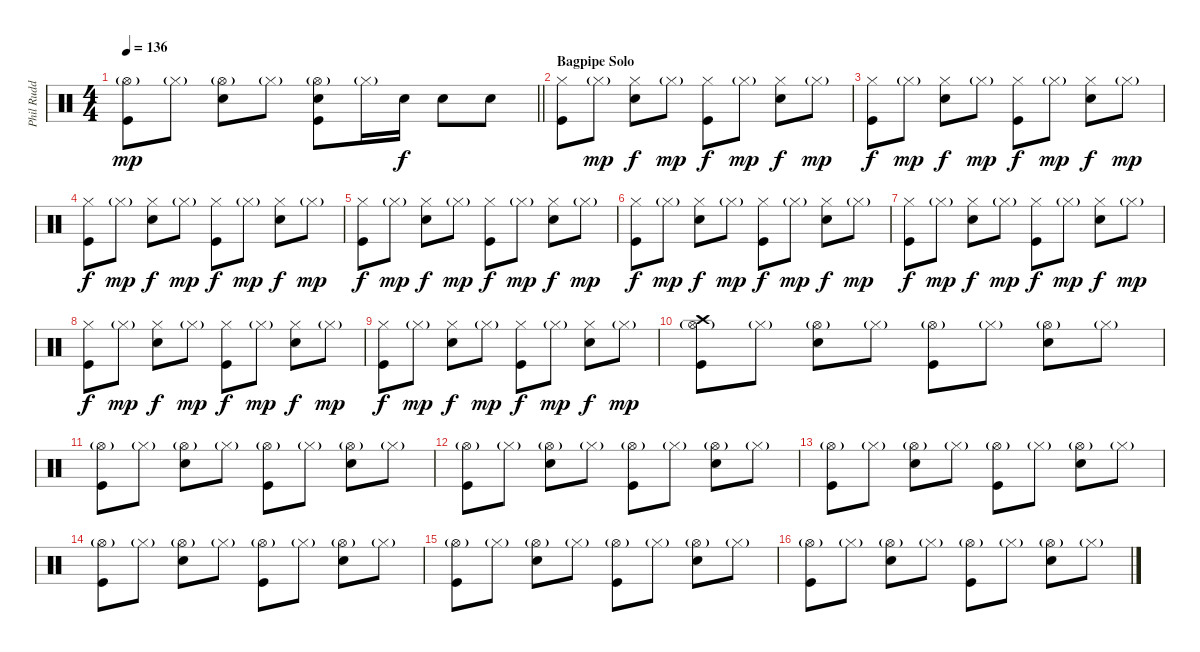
\track ("Phil Rudd" "Phil Rudd") {instrument percussion}
\staff {score}
\articulation defaults
\ts (4 4)
\tempo 136
\clef neutral
\barLineRight lightlight
\ks c
("Hi-Hat (open)"{g} "Kick (hit)").8{dy mp} "Hi-Hat (closed)"{g}.8 ("Hi-Hat (open)"{g} "Electric Snare (hit)").8 "Hi-Hat (closed)"{g}.8 ("Hi-Hat (open)"{g} "Electric Snare (hit)" "Kick (hit)").8 "Hi-Hat (closed)"{g}.16 "Electric Snare (hit)".16{dy f} "Electric Snare (hit)".8 "Electric Snare (hit)".8 |
\section ("" "Bagpipe Solo")
("Hi-Hat (closed)" "Kick (hit)").8 "Hi-Hat (closed)"{g}.8{dy mp} ("Hi-Hat (closed)" "Electric Snare (hit)").8{dy f} "Hi-Hat (closed)"{g}.8{dy mp} ("Hi-Hat (closed)" "Kick (hit)").8{dy f} "Hi-Hat (closed)"{g}.8{dy mp} ("Hi-Hat (closed)" "Electric Snare (hit)").8{dy f} "Hi-Hat (closed)"{g}.8{dy mp} |
("Hi-Hat (closed)" "Kick (hit)").8{dy f} "Hi-Hat (closed)"{g}.8{dy mp} ("Hi-Hat (closed)" "Electric Snare (hit)").8{dy f} "Hi-Hat (closed)"{g}.8{dy mp} ("Hi-Hat (closed)" "Kick (hit)").8{dy f} "Hi-Hat (closed)"{g}.8{dy mp} ("Hi-Hat (closed)" "Electric Snare (hit)").8{dy f} "Hi-Hat (closed)"{g}.8{dy mp} |
("Hi-Hat (closed)" "Kick (hit)").8{dy f} "Hi-Hat (closed)"{g}.8{dy mp} ("Hi-Hat (closed)" "Electric Snare (hit)").8{dy f} "Hi-Hat (closed)"{g}.8{dy mp} ("Hi-Hat (closed)" "Kick (hit)").8{dy f} "Hi-Hat (closed)"{g}.8{dy mp} ("Hi-Hat (closed)" "Electric Snare (hit)").8{dy f} "Hi-Hat (closed)"{g}.8{dy mp} |
("Hi-Hat (closed)" "Kick (hit)").8{dy f} "Hi-Hat (closed)"{g}.8{dy mp} ("Hi-Hat (closed)" "Electric Snare (hit)").8{dy f} "Hi-Hat (closed)"{g}.8{dy mp} ("Hi-Hat (closed)" "Kick (hit)").8{dy f} "Hi-Hat (closed)"{g}.8{dy mp} ("Hi-Hat (closed)" "Electric Snare (hit)").8{dy f} "Hi-Hat (closed)"{g}.8{dy mp} |
("Hi-Hat (closed)" "Kick (hit)").8{dy f} "Hi-Hat (closed)"{g}.8{dy mp} ("Hi-Hat (closed)" "Electric Snare (hit)").8{dy f} "Hi-Hat (closed)"{g}.8{dy mp} ("Hi-Hat (closed)" "Kick (hit)").8{dy f} "Hi-Hat (closed)"{g}.8{dy mp} ("Hi-Hat (closed)" "Electric Snare (hit)").8{dy f} "Hi-Hat (closed)"{g}.8{dy mp} |
("Hi-Hat (closed)" "Kick (hit)").8{dy f} "Hi-Hat (closed)"{g}.8{dy mp} ("Hi-Hat (closed)" "Electric Snare (hit)").8{dy f} "Hi-Hat (closed)"{g}.8{dy mp} ("Hi-Hat (closed)" "Kick (hit)").8{dy f} "Hi-Hat (closed)"{g}.8{dy mp} ("Hi-Hat (closed)" "Electric Snare (hit)").8{dy f} "Hi-Hat (closed)"{g}.8{dy mp} |
("Hi-Hat (closed)" "Kick (hit)").8{dy f} "Hi-Hat (closed)"{g}.8{dy mp} ("Hi-Hat (closed)" "Electric Snare (hit)").8{dy f} "Hi-Hat (closed)"{g}.8{dy mp} ("Hi-Hat (closed)" "Kick (hit)").8{dy f} "Hi-Hat (closed)"{g}.8{dy mp} ("Hi-Hat (closed)" "Electric Snare (hit)").8{dy f} "Hi-Hat (closed)"{g}.8{dy mp} |
("Hi-Hat (closed)" "Kick (hit)").8{dy f} "Hi-Hat (closed)"{g}.8{dy mp} ("Hi-Hat (closed)" "Electric Snare (hit)").8{dy f} "Hi-Hat (closed)"{g}.8{dy mp} ("Hi-Hat (closed)" "Kick (hit)").8{dy f} "Hi-Hat (closed)"{g}.8{dy mp} ("Hi-Hat (closed)" "Electric Snare (hit)").8{dy f} "Hi-Hat (closed)"{g}.8{dy mp} |
("Crash high (hit)" "Hi-Hat (open)"{g} "Kick (hit)").8 "Hi-Hat (closed)"{g}.8 ("Hi-Hat (open)"{g} "Electric Snare (hit)").8 "Hi-Hat (closed)"{g}.8 ("Hi-Hat (open)"{g} "Kick (hit)").8 "Hi-Hat (closed)"{g}.8 ("Hi-Hat (open)"{g} "Electric Snare (hit)").8 "Hi-Hat (closed)"{g}.8 |
("Hi-Hat (open)"{g} "Kick (hit)").8 "Hi-Hat (closed)"{g}.8 ("Hi-Hat (open)"{g} "Electric Snare (hit)").8 "Hi-Hat (closed)"{g}.8 ("Hi-Hat (open)"{g} "Kick (hit)").8 "Hi-Hat (closed)"{g}.8 ("Hi-Hat (open)"{g} "Electric Snare (hit)").8 "Hi-Hat (closed)"{g}.8 |
("Hi-Hat (open)"{g} "Kick (hit)").8 "Hi-Hat (closed)"{g}.8 ("Hi-Hat (open)"{g} "Electric Snare (hit)").8 "Hi-Hat (closed)"{g}.8 ("Hi-Hat (open)"{g} "Kick (hit)").8 "Hi-Hat (closed)"{g}.8 ("Hi-Hat (open)"{g} "Electric Snare (hit)").8 "Hi-Hat (closed)"{g}.8 |
("Hi-Hat (open)"{g} "Kick (hit)").8 "Hi-Hat (closed)"{g}.8 ("Hi-Hat (open)"{g} "Electric Snare (hit)").8 "Hi-Hat (closed)"{g}.8 ("Hi-Hat (open)"{g} "Kick (hit)").8 "Hi-Hat (closed)"{g}.8 ("Hi-Hat (open)"{g} "Electric Snare (hit)").8 "Hi-Hat (closed)"{g}.8 |
("Hi-Hat (open)"{g} "Kick (hit)").8 "Hi-Hat (closed)"{g}.8 ("Hi-Hat (open)"{g} "Electric Snare (hit)").8 "Hi-Hat (closed)"{g}.8 ("Hi-Hat (open)"{g} "Kick (hit)").8 "Hi-Hat (closed)"{g}.8 ("Hi-Hat (open)"{g} "Electric Snare (hit)").8 "Hi-Hat (closed)"{g}.8 |
("Hi-Hat (open)"{g} "Kick (hit)").8 "Hi-Hat (closed)"{g}.8 ("Hi-Hat (open)"{g} "Electric Snare (hit)").8 "Hi-Hat (closed)"{g}.8 ("Hi-Hat (open)"{g} "Kick (hit)").8 "Hi-Hat (closed)"{g}.8 ("Hi-Hat (open)"{g} "Electric Snare (hit)").8 "Hi-Hat (closed)"{g}.8 |
("Hi-Hat (open)"{g} "Kick (hit)").8 "Hi-Hat (closed)"{g}.8 ("Hi-Hat (open)"{g} "Electric Snare (hit)").8 "Hi-Hat (closed)"{g}.8 ("Hi-Hat (open)"{g} "Kick (hit)").8 "Hi-Hat (closed)"{g}.8 ("Hi-Hat (open)"{g} "Electric Snare (hit)").8 "Hi-Hat (closed)"{g}.8
